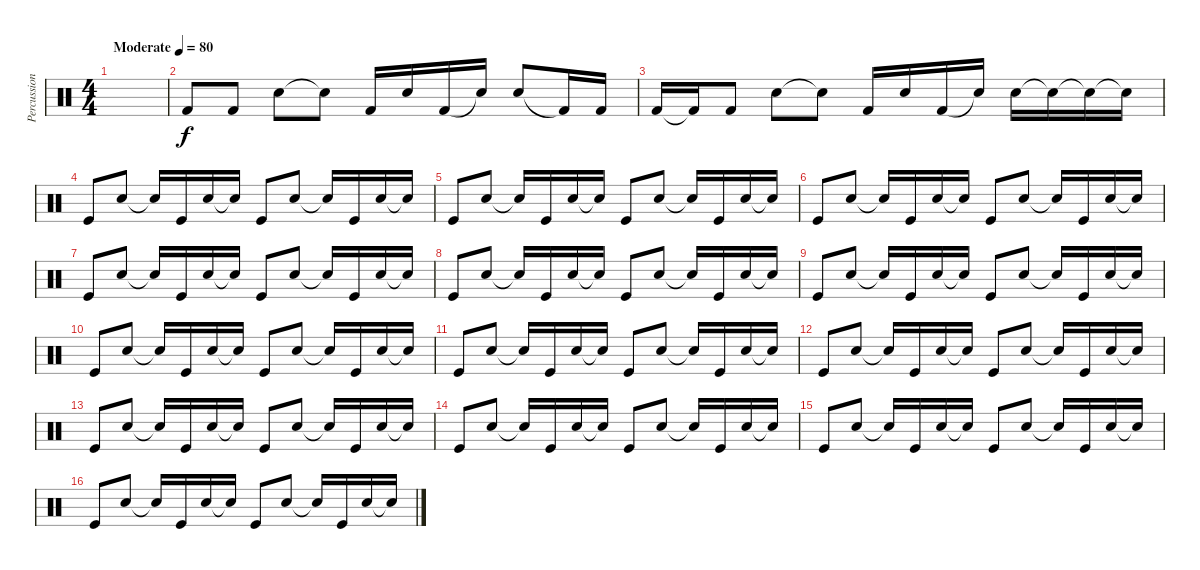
\track ("Percussion" "Percussion") {instrument percussion}
\staff {score}
\articulation defaults
\ts (4 4)
\tempo (80 "Moderate")
\clef neutral
\ks c
|
"Kick (hit) 2".8 "Kick (hit) 2".8 "Snare (hit) 2".8 "Snare (hit)"{t}.8 "Kick (hit) 2".16 "Snare (hit) 2".16 "Kick (hit) 2".16 "Snare (hit) 2"{t}.16 "Snare (hit) 2".8 "Kick (hit) 2"{t}.16 "Kick (hit) 2".16 |
"Kick (hit) 2".16 "Kick (hit) 2"{t}.16 "Kick (hit) 2".8 "Snare (hit) 2".8 "Snare (hit)"{t}.8 "Kick (hit) 2".16 "Snare (hit) 2".16 "Kick (hit) 2".16 "Snare (hit)"{t}.16 "Snare (hit) 2".16 "Snare (hit)"{t}.16 "Snare (hit)"{t}.16 "Snare (hit)"{t}.16 |
"Kick (hit)".8 "Snare (hit) 2".8 "Snare (hit)"{t}.16 "Kick (hit)".16 "Snare (hit) 2".16 "Snare (hit)"{t}.16 "Kick (hit)".8 "Snare (hit) 2".8 "Snare (hit)"{t}.16 "Kick (hit)".16 "Snare (hit) 2".16 "Snare (hit)"{t}.16 |
"Kick (hit)".8 "Snare (hit) 2".8 "Snare (hit)"{t}.16 "Kick (hit)".16 "Snare (hit) 2".16 "Snare (hit)"{t}.16 "Kick (hit)".8 "Snare (hit) 2".8 "Snare (hit)"{t}.16 "Kick (hit)".16 "Snare (hit) 2".16 "Snare (hit)"{t}.16 |
"Kick (hit)".8 "Snare (hit) 2".8 "Snare (hit)"{t}.16 "Kick (hit)".16 "Snare (hit) 2".16 "Snare (hit)"{t}.16 "Kick (hit)".8 "Snare (hit) 2".8 "Snare (hit)"{t}.16 "Kick (hit)".16 "Snare (hit) 2".16 "Snare (hit)"{t}.16 |
"Kick (hit)".8 "Snare (hit) 2".8 "Snare (hit)"{t}.16 "Kick (hit)".16 "Snare (hit) 2".16 "Snare (hit)"{t}.16 "Kick (hit)".8 "Snare (hit) 2".8 "Snare (hit)"{t}.16 "Kick (hit)".16 "Snare (hit) 2".16 "Snare (hit)"{t}.16 |
"Kick (hit)".8 "Snare (hit) 2".8 "Snare (hit)"{t}.16 "Kick (hit)".16 "Snare (hit) 2".16 "Snare (hit)"{t}.16 "Kick (hit)".8 "Snare (hit) 2".8 "Snare (hit)"{t}.16 "Kick (hit)".16 "Snare (hit) 2".16 "Snare (hit)"{t}.16 |
"Kick (hit)".8 "Snare (hit) 2".8 "Snare (hit)"{t}.16 "Kick (hit)".16 "Snare (hit) 2".16 "Snare (hit)"{t}.16 "Kick (hit)".8 "Snare (hit) 2".8 "Snare (hit)"{t}.16 "Kick (hit)".16 "Snare (hit) 2".16 "Snare (hit)"{t}.16 |
"Kick (hit)".8 "Snare (hit) 2".8 "Snare (hit)"{t}.16 "Kick (hit)".16 "Snare (hit) 2".16 "Snare (hit)"{t}.16 "Kick (hit)".8 "Snare (hit) 2".8 "Snare (hit)"{t}.16 "Kick (hit)".16 "Snare (hit) 2".16 "Snare (hit)"{t}.16 |
"Kick (hit)".8 "Snare (hit) 2".8 "Snare (hit)"{t}.16 "Kick (hit)".16 "Snare (hit) 2".16 "Snare (hit)"{t}.16 "Kick (hit)".8 "Snare (hit) 2".8 "Snare (hit)"{t}.16 "Kick (hit)".16 "Snare (hit) 2".16 "Snare (hit)"{t}.16 |
"Kick (hit)".8 "Snare (hit) 2".8 "Snare (hit)"{t}.16 "Kick (hit)".16 "Snare (hit) 2".16 "Snare (hit)"{t}.16 "Kick (hit)".8 "Snare (hit) 2".8 "Snare (hit)"{t}.16 "Kick (hit)".16 "Snare (hit) 2".16 "Snare (hit)"{t}.16 |
"Kick (hit)".8 "Snare (hit) 2".8 "Snare (hit)"{t}.16 "Kick (hit)".16 "Snare (hit) 2".16 "Snare (hit)"{t}.16 "Kick (hit)".8 "Snare (hit) 2".8 "Snare (hit)"{t}.16 "Kick (hit)".16 "Snare (hit) 2".16 "Snare (hit)"{t}.16 |
"Kick (hit)".8 "Snare (hit) 2".8 "Snare (hit)"{t}.16 "Kick (hit)".16 "Snare (hit) 2".16 "Snare (hit)"{t}.16 "Kick (hit)".8 "Snare (hit) 2".8 "Snare (hit)"{t}.16 "Kick (hit)".16 "Snare (hit) 2".16 "Snare (hit)"{t}.16 |
"Kick (hit)".8 "Snare (hit) 2".8 "Snare (hit)"{t}.16 "Kick (hit)".16 "Snare (hit) 2".16 "Snare (hit)"{t}.16 "Kick (hit)".8 "Snare (hit) 2".8 "Snare (hit)"{t}.16 "Kick (hit)".16 "Snare (hit) 2".16 "Snare (hit)"{t}.16 |
"Kick (hit)".8 "Snare (hit) 2".8 "Snare (hit)"{t}.16 "Kick (hit)".16 "Snare (hit) 2".16 "Snare (hit)"{t}.16 "Kick (hit)".8 "Snare (hit) 2".8 "Snare (hit)"{t}.16 "Kick (hit)".16 "Snare (hit) 2".16 "Snare (hit)"{t}.16
